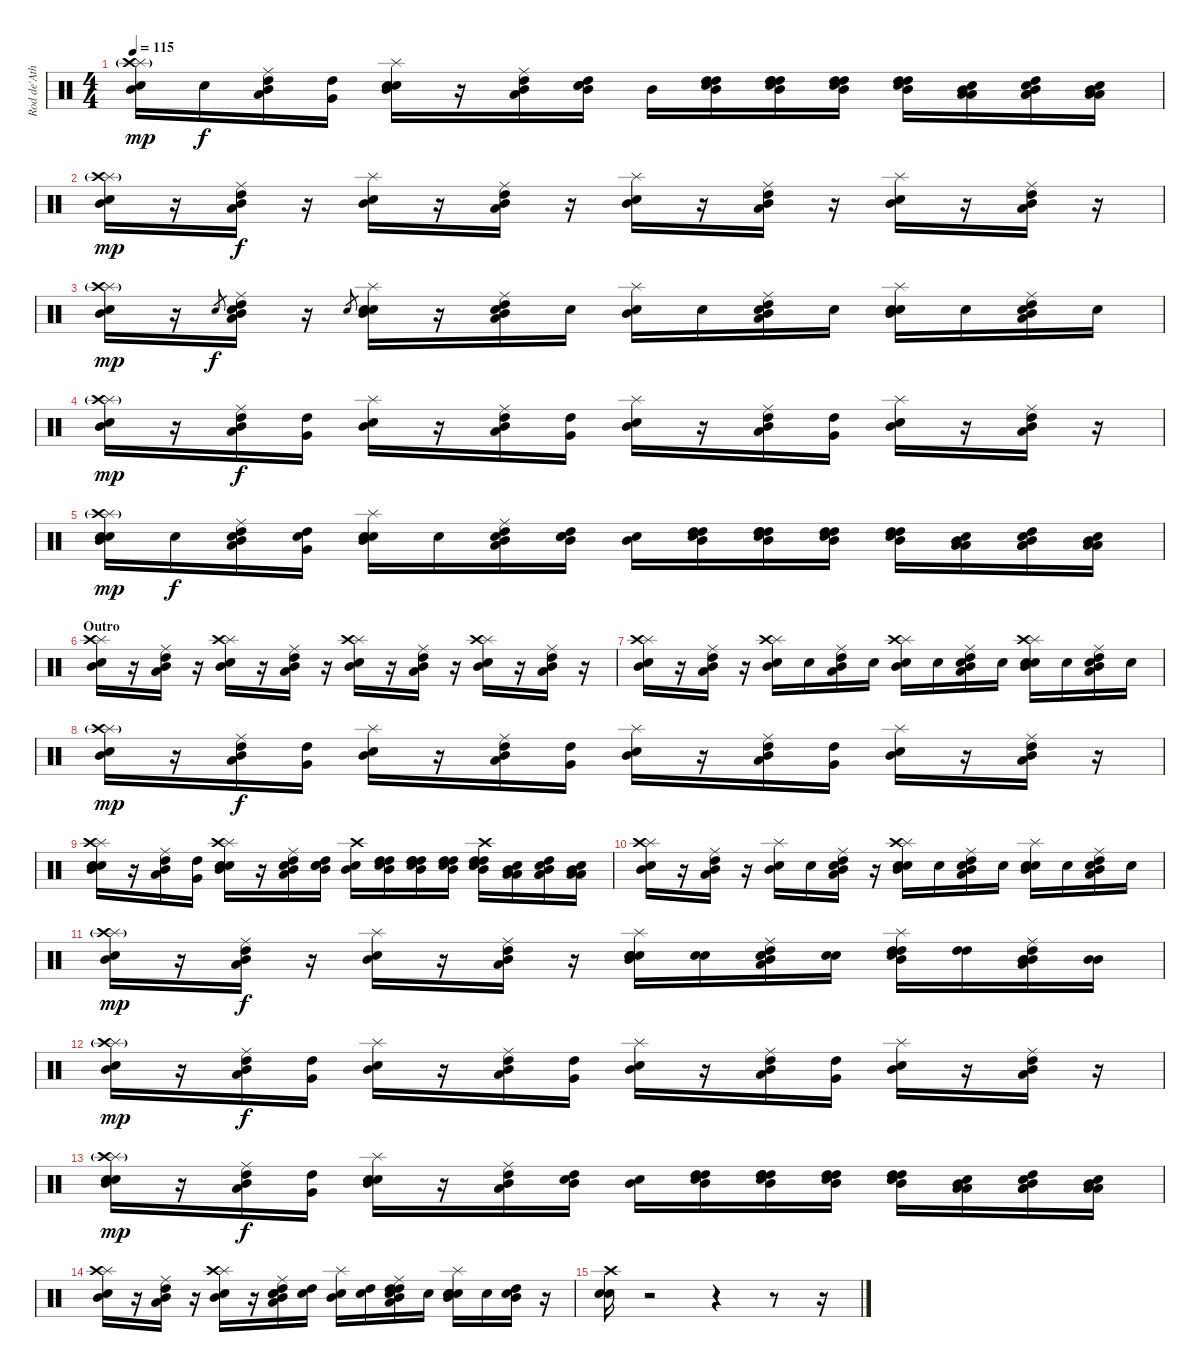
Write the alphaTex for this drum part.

\track ("Rod de'Ath" "Rod de'Ath") {instrument percussion}
\staff {score}
\articulation defaults
\ts (4 4)
\tempo 115
\clef neutral
\ks c
("Splash (hit)" "Snare (hit) 2" "Crash high (hit)"{g} "Mid Tom (hit)").16{dy mp} "Electric Snare (hit)".16{dy f} ("Ride (middle)" "Low Tom (hit)" "High Tom (hit)" "Mid Tom (hit)").16 ("High Tom (hit)" "Very Low Tom (hit)").16 ("Splash (hit)" "Snare (hit) 2" "Electric Snare (hit)" "Mid Tom (hit)").16 r.16 ("Ride (middle)" "Low Tom (hit)" "High Tom (hit)" "Mid Tom (hit)").16 ("Electric Snare (hit)" "High Tom (hit)" "Electric Snare (hit)" "Mid Tom (hit)").16 "Mid Tom (hit)".16 ("High Tom (hit)" "High Tom (hit)" "Electric Snare (hit)" "Mid Tom (hit)").16 ("High Tom (hit)" "High Tom (hit)" "High Tom (hit)" "Electric Snare (hit)" "Mid Tom (hit)").16 ("High Tom (hit)" "High Tom (hit)" "Electric Snare (hit)" "Mid Tom (hit)").16 ("High Tom (hit)" "High Tom (hit)" "Electric Snare (hit)" "Mid Tom (hit)").16 ("Low Tom (hit)" "Low Tom (hit)" "Electric Snare (hit)" "Mid Tom (hit)").16 ("Low Tom (hit)" "Low Tom (hit)" "High Tom (hit)" "Electric Snare (hit)" "Mid Tom (hit)").16 ("Low Tom (hit)" "Low Tom (hit)" "Electric Snare (hit)" "Mid Tom (hit)").16 |
("Splash (hit)" "Snare (hit) 2" "Crash high (hit)"{g} "Mid Tom (hit)").16{dy mp} r.16 ("Ride (middle)" "Low Tom (hit)" "High Tom (hit)" "Mid Tom (hit)").16{dy f} r.16 ("Splash (hit)" "Snare (hit) 2" "Mid Tom (hit)").16 r.16 ("Ride (middle)" "Low Tom (hit)" "High Tom (hit)" "Mid Tom (hit)").16 r.16 ("Splash (hit)" "Snare (hit) 2" "Mid Tom (hit)").16 r.16 ("Ride (middle)" "Low Tom (hit)" "High Tom (hit)" "Mid Tom (hit)").16 r.16 ("Splash (hit)" "Snare (hit) 2" "Mid Tom (hit)").16 r.16 ("Ride (middle)" "Low Tom (hit)" "High Tom (hit)" "Mid Tom (hit)").16 r.16 |
("Splash (hit)" "Snare (hit) 2" "Crash high (hit)"{g} "Mid Tom (hit)").16{dy mp} r.16 "Snare (hit) 2"{sl}.8{gr dy f} ("Ride (middle)" "Low Tom (hit)" "High Tom (hit)" "Electric Snare (hit)" "Mid Tom (hit)").16 r.16 "Snare (hit) 2".8{gr} ("Splash (hit)" "Snare (hit) 2" "Electric Snare (hit)" "Mid Tom (hit)").16 r.16 ("Ride (middle)" "Low Tom (hit)" "High Tom (hit)" "Electric Snare (hit)" "Mid Tom (hit)").16 "Electric Snare (hit)".16 ("Splash (hit)" "Snare (hit) 2" "Mid Tom (hit)").16 "Snare (hit) 2".16 ("Ride (middle)" "Low Tom (hit)" "High Tom (hit)" "Snare (hit) 2" "Mid Tom (hit)").16 "Snare (hit) 2".16 ("Splash (hit)" "Snare (hit) 2" "Snare (hit) 2" "Mid Tom (hit)").16 "Snare (hit) 2".16 ("Ride (middle)" "Low Tom (hit)" "High Tom (hit)" "Snare (hit) 2" "Mid Tom (hit)").16 "Snare (hit) 2".16 |
("Splash (hit)" "Snare (hit) 2" "Crash high (hit)"{g} "Mid Tom (hit)").16{dy mp} r.16 ("Ride (middle)" "Low Tom (hit)" "High Tom (hit)" "Mid Tom (hit)").16{dy f} ("Very Low Tom (hit)" "High Tom (hit)").16 ("Splash (hit)" "Snare (hit) 2" "Mid Tom (hit)").16 r.16 ("Ride (middle)" "Low Tom (hit)" "High Tom (hit)" "Mid Tom (hit)").16 ("Very Low Tom (hit)" "High Tom (hit)").16 ("Splash (hit)" "Snare (hit) 2" "Mid Tom (hit)").16 r.16 ("Ride (middle)" "Low Tom (hit)" "High Tom (hit)" "Mid Tom (hit)").16 ("Very Low Tom (hit)" "High Tom (hit)").16 ("Splash (hit)" "Snare (hit) 2" "Mid Tom (hit)").16 r.16 ("Ride (middle)" "Low Tom (hit)" "High Tom (hit)" "Mid Tom (hit)").16 r.16 |
("Splash (hit)" "Snare (hit) 2" "Electric Snare (hit)" "Crash high (hit)"{g} "Mid Tom (hit)").16{dy mp} "Electric Snare (hit)".16{dy f} ("Ride (middle)" "Low Tom (hit)" "High Tom (hit)" "Electric Snare (hit)" "Mid Tom (hit)").16 ("High Tom (hit)" "Very Low Tom (hit)" "Electric Snare (hit)").16 ("Splash (hit)" "Snare (hit) 2" "Electric Snare (hit)" "Mid Tom (hit)").16 "Electric Snare (hit)".16 ("Ride (middle)" "Low Tom (hit)" "High Tom (hit)" "Electric Snare (hit)" "Mid Tom (hit)").16 ("Electric Snare (hit)" "High Tom (hit)" "Electric Snare (hit)" "Mid Tom (hit)").16 ("Snare (hit) 2" "Mid Tom (hit)").16 ("High Tom (hit)" "High Tom (hit)" "Snare (hit) 2" "Mid Tom (hit)").16 ("High Tom (hit)" "High Tom (hit)" "High Tom (hit)" "Snare (hit) 2" "Mid Tom (hit)").16 ("High Tom (hit)" "High Tom (hit)" "Snare (hit) 2" "Mid Tom (hit)").16 ("High Tom (hit)" "High Tom (hit)" "Snare (hit) 2" "Mid Tom (hit)").16 ("Low Tom (hit)" "Low Tom (hit)" "Snare (hit) 2" "Mid Tom (hit)").16 ("Low Tom (hit)" "Low Tom (hit)" "High Tom (hit)" "Snare (hit) 2" "Mid Tom (hit)").16 ("Low Tom (hit)" "Low Tom (hit)" "Snare (hit) 2" "Mid Tom (hit)").16 |
\section ("" "Outro")
("Splash (hit)" "Snare (hit) 2" "Crash high (hit)" "Mid Tom (hit)").16 r.16 ("Ride (middle)" "Low Tom (hit)" "High Tom (hit)" "Mid Tom (hit)").16 r.16 ("Splash (hit)" "Snare (hit) 2" "Crash high (hit)" "Mid Tom (hit)").16 r.16 ("Ride (middle)" "Low Tom (hit)" "High Tom (hit)" "Mid Tom (hit)").16 r.16 ("Splash (hit)" "Snare (hit) 2" "Crash high (hit)" "Mid Tom (hit)").16 r.16 ("Ride (middle)" "Low Tom (hit)" "High Tom (hit)" "Mid Tom (hit)").16 r.16 ("Splash (hit)" "Snare (hit) 2" "Crash high (hit)" "Mid Tom (hit)").16 r.16 ("Ride (middle)" "Low Tom (hit)" "High Tom (hit)" "Mid Tom (hit)").16 r.16 |
("Splash (hit)" "Snare (hit) 2" "Crash high (hit)" "Mid Tom (hit)").16 r.16 ("Ride (middle)" "Low Tom (hit)" "High Tom (hit)" "Mid Tom (hit)").16 r.16 ("Splash (hit)" "Snare (hit) 2" "Crash high (hit)" "Mid Tom (hit)").16 "Snare (hit) 2".16 ("Ride (middle)" "Low Tom (hit)" "High Tom (hit)" "Mid Tom (hit)").16 "Electric Snare (hit)".16 ("Splash (hit)" "Snare (hit) 2" "Crash high (hit)" "Mid Tom (hit)").16 "Snare (hit) 2".16 ("Ride (middle)" "Low Tom (hit)" "High Tom (hit)" "Electric Snare (hit)" "Mid Tom (hit)").16 "Electric Snare (hit)".16 ("Splash (hit)" "Snare (hit) 2" "Electric Snare (hit)" "Crash high (hit)" "Mid Tom (hit)").16 "Electric Snare (hit)".16 ("Ride (middle)" "Low Tom (hit)" "High Tom (hit)" "Electric Snare (hit)" "Mid Tom (hit)").16 "Electric Snare (hit)".16 |
("Splash (hit)" "Snare (hit) 2" "Crash high (hit)"{g} "Mid Tom (hit)").16{dy mp} r.16 ("Ride (middle)" "Low Tom (hit)" "High Tom (hit)" "Mid Tom (hit)").16{dy f} ("Very Low Tom (hit)" "High Tom (hit)").16 ("Splash (hit)" "Snare (hit) 2" "Mid Tom (hit)").16 r.16 ("Ride (middle)" "Low Tom (hit)" "High Tom (hit)" "Mid Tom (hit)").16 ("Very Low Tom (hit)" "High Tom (hit)").16 ("Splash (hit)" "Snare (hit) 2" "Mid Tom (hit)").16 r.16 ("Ride (middle)" "Low Tom (hit)" "High Tom (hit)" "Mid Tom (hit)").16 ("Very Low Tom (hit)" "High Tom (hit)").16 ("Splash (hit)" "Snare (hit) 2" "Mid Tom (hit)").16 r.16 ("Ride (middle)" "Low Tom (hit)" "High Tom (hit)" "Mid Tom (hit)").16 r.16 |
("Splash (hit)" "Snare (hit) 2" "Electric Snare (hit)" "Crash high (hit)" "Mid Tom (hit)").16 r.16 ("Ride (middle)" "Low Tom (hit)" "High Tom (hit)" "Mid Tom (hit)").16 ("High Tom (hit)" "Very Low Tom (hit)").16 ("Splash (hit)" "Snare (hit) 2" "Electric Snare (hit)" "Crash high (hit)" "Mid Tom (hit)").16 r.16 ("Ride (middle)" "Low Tom (hit)" "High Tom (hit)" "Snare (hit) 2" "Mid Tom (hit)").16 ("Electric Snare (hit)" "High Tom (hit)" "Snare (hit) 2" "Mid Tom (hit)").16 ("Electric Snare (hit)" "Crash high (hit)" "Mid Tom (hit)").16 ("High Tom (hit)" "High Tom (hit)" "Electric Snare (hit)" "Mid Tom (hit)").16 ("High Tom (hit)" "High Tom (hit)" "High Tom (hit)" "Electric Snare (hit)" "Mid Tom (hit)").16 ("High Tom (hit)" "High Tom (hit)" "Electric Snare (hit)" "Mid Tom (hit)").16 ("High Tom (hit)" "High Tom (hit)" "Electric Snare (hit)" "Electric Snare (hit)" "Crash high (hit)" "Mid Tom (hit)").16 ("Low Tom (hit)" "Low Tom (hit)" "Electric Snare (hit)" "Mid Tom (hit)").16 ("Low Tom (hit)" "Low Tom (hit)" "High Tom (hit)" "Electric Snare (hit)" "Mid Tom (hit)").16 ("Low Tom (hit)" "Low Tom (hit)" "Electric Snare (hit)" "Mid Tom (hit)").16 |
("Splash (hit)" "Snare (hit) 2" "Crash high (hit)" "Mid Tom (hit)").16 r.16 ("Ride (middle)" "Low Tom (hit)" "High Tom (hit)" "Mid Tom (hit)").16 r.16 ("Splash (hit)" "Snare (hit) 2" "Mid Tom (hit)").16 "Snare (hit) 2".16 ("Ride (middle)" "Low Tom (hit)" "High Tom (hit)" "Electric Snare (hit)" "Mid Tom (hit)").16 r.16 ("Splash (hit)" "Snare (hit) 2" "Electric Snare (hit)" "Crash high (hit)" "Mid Tom (hit)").16 "Snare (hit) 2".16 ("Ride (middle)" "Low Tom (hit)" "High Tom (hit)" "Snare (hit) 2" "Mid Tom (hit)").16 "Snare (hit) 2".16 ("Splash (hit)" "Snare (hit) 2" "Snare (hit) 2" "Mid Tom (hit)").16 "Snare (hit) 2".16 ("Ride (middle)" "Low Tom (hit)" "High Tom (hit)" "Snare (hit) 2" "Mid Tom (hit)").16 "Snare (hit) 2".16 |
("Splash (hit)" "Snare (hit) 2" "Crash high (hit)"{g} "Mid Tom (hit)").16{dy mp} r.16 ("Ride (middle)" "Low Tom (hit)" "High Tom (hit)" "Mid Tom (hit)").16{dy f} r.16 ("Splash (hit)" "Snare (hit) 2" "Mid Tom (hit)").16 r.16 ("Ride (middle)" "Low Tom (hit)" "High Tom (hit)" "Mid Tom (hit)").16 r.16 ("Splash (hit)" "Snare (hit) 2" "Electric Snare (hit)" "Electric Snare (hit)" "Mid Tom (hit)").16 ("Electric Snare (hit)" "Electric Snare (hit)").16 ("Ride (middle)" "Low Tom (hit)" "High Tom (hit)" "Snare (hit) 2" "Snare (hit) 2" "Mid Tom (hit)").16 ("Snare (hit) 2" "Snare (hit) 2").16 ("Splash (hit)" "Snare (hit) 2" "High Tom (hit)" "High Tom (hit)" "Mid Tom (hit)").16 ("High Tom (hit)" "High Tom (hit)").16 ("Ride (middle)" "Low Tom (hit)" "High Tom (hit)" "Mid Tom (hit)" "Mid Tom (hit)" "Mid Tom (hit)").16 ("Mid Tom (hit)" "Mid Tom (hit)").16 |
("Splash (hit)" "Snare (hit) 2" "Crash high (hit)"{g} "Mid Tom (hit)").16{dy mp} r.16 ("Ride (middle)" "Low Tom (hit)" "High Tom (hit)" "Mid Tom (hit)").16{dy f} ("Very Low Tom (hit)" "High Tom (hit)").16 ("Splash (hit)" "Snare (hit) 2" "Mid Tom (hit)").16 r.16 ("Ride (middle)" "Low Tom (hit)" "High Tom (hit)" "Mid Tom (hit)").16 ("Very Low Tom (hit)" "High Tom (hit)").16 ("Splash (hit)" "Snare (hit) 2" "Mid Tom (hit)").16 r.16 ("Ride (middle)" "Low Tom (hit)" "High Tom (hit)" "Mid Tom (hit)").16 ("Very Low Tom (hit)" "High Tom (hit)").16 ("Splash (hit)" "Snare (hit) 2" "Mid Tom (hit)").16 r.16 ("Ride (middle)" "Low Tom (hit)" "High Tom (hit)" "Mid Tom (hit)").16 r.16 |
("Splash (hit)" "Snare (hit) 2" "Electric Snare (hit)" "Crash high (hit)"{g} "Mid Tom (hit)").16{dy mp} r.16 ("Ride (middle)" "Low Tom (hit)" "High Tom (hit)" "Mid Tom (hit)").16{dy f} ("High Tom (hit)" "Very Low Tom (hit)").16 ("Splash (hit)" "Snare (hit) 2" "Electric Snare (hit)" "Mid Tom (hit)").16 r.16 ("Ride (middle)" "Low Tom (hit)" "High Tom (hit)" "Mid Tom (hit)").16 ("Electric Snare (hit)" "High Tom (hit)" "Mid Tom (hit)").16 ("Electric Snare (hit)" "Mid Tom (hit)").16 ("High Tom (hit)" "High Tom (hit)" "Electric Snare (hit)" "Mid Tom (hit)").16 ("High Tom (hit)" "High Tom (hit)" "High Tom (hit)" "Electric Snare (hit)" "Mid Tom (hit)").16 ("High Tom (hit)" "High Tom (hit)" "Electric Snare (hit)" "Mid Tom (hit)").16 ("High Tom (hit)" "High Tom (hit)" "Electric Snare (hit)" "Electric Snare (hit)" "Mid Tom (hit)").16 ("Low Tom (hit)" "Low Tom (hit)" "Electric Snare (hit)" "Mid Tom (hit)").16 ("Low Tom (hit)" "Low Tom (hit)" "High Tom (hit)" "Electric Snare (hit)" "Mid Tom (hit)").16 ("Low Tom (hit)" "Low Tom (hit)" "Electric Snare (hit)" "Mid Tom (hit)").16 |
("Splash (hit)" "Snare (hit) 2" "Crash high (hit)" "Mid Tom (hit)").16 r.16 ("Ride (middle)" "Low Tom (hit)" "High Tom (hit)" "Mid Tom (hit)").16 r.16 ("Splash (hit)" "Snare (hit) 2" "Crash high (hit)" "Mid Tom (hit)").16 r.16 ("Ride (middle)" "Low Tom (hit)" "High Tom (hit)" "Snare (hit) 2" "Snare (hit) 2" "Mid Tom (hit)").16 ("Snare (hit) 2" "High Tom (hit)").16 ("Splash (hit)" "Snare (hit) 2" "Mid Tom (hit)").16 ("Snare (hit) 2" "High Tom (hit)").16 ("Ride (middle)" "Low Tom (hit)" "High Tom (hit)" "Snare (hit) 2" "High Tom (hit)" "Mid Tom (hit)").16 "Electric Snare (hit)".16 ("Splash (hit)" "Snare (hit) 2" "Snare (hit) 2" "Electric Snare (hit)" "Mid Tom (hit)").16 "Electric Snare (hit)".16 ("High Tom (hit)" "Electric Snare (hit)" "Mid Tom (hit)").16 r.16 |
("Electric Snare (hit)" "Snare (hit) 2" "Crash high (hit)").16 r.2 r.4 r.8 r.16
